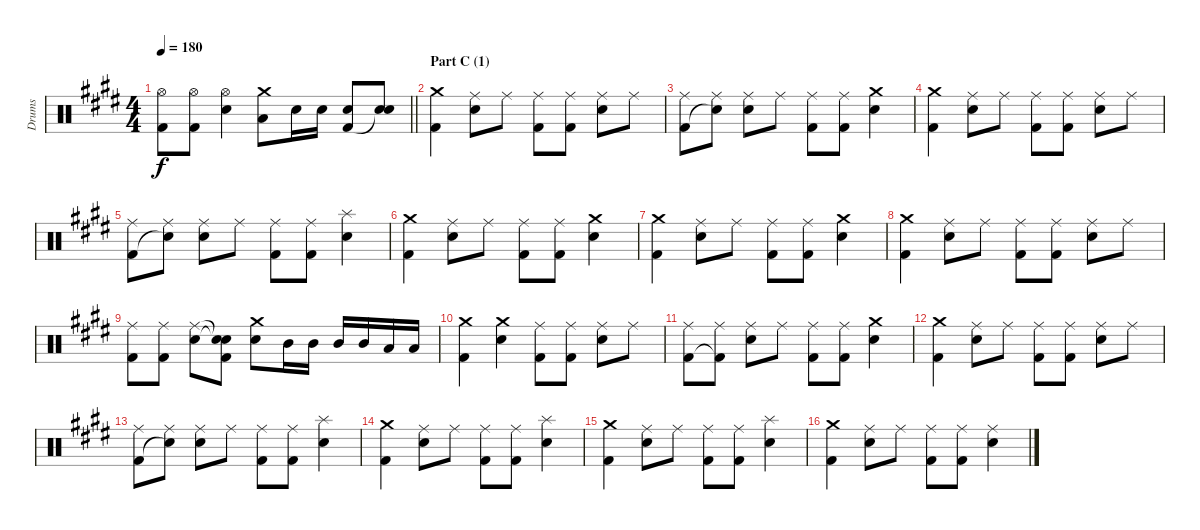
\track ("Drums" "Drums") {instrument percussion}
\staff {score}
\articulation defaults
\ts (4 4)
\tempo 180
\clef neutral
\barLineRight lightlight
\ks e
("Hi-Hat (open)" "Kick (hit) 2").8{dy f} ("Hi-Hat (open)" "Kick (hit) 2").8 ("Hi-Hat (open)" "Electric Snare (hit)").4 ("Crash medium (hit)" "Low Tom (hit)").8 "Electric Snare (hit)".16 "Electric Snare (hit)".16 ("Electric Snare (hit)" "Kick (hit) 2").8 ("Electric Snare (hit)" "Snare (hit)"{t}).8 |
\section ("" "Part C (1)")
("Crash medium (hit)" "Kick (hit) 2").4 ("Ride (middle)" "Electric Snare (hit)").8 "Ride (middle)".8 ("Ride (middle)" "Kick (hit) 2").8 ("Ride (middle)" "Kick (hit) 2").8 ("Ride (middle)" "Electric Snare (hit)").8 "Ride (middle)".8 |
("Ride (middle)" "Kick (hit) 2").8 ("Ride (middle)" "Snare (hit)"{t}).8 ("Ride (middle)" "Electric Snare (hit)").8 "Ride (middle)".8 ("Ride (middle)" "Kick (hit) 2").8 ("Ride (middle)" "Kick (hit) 2").8 ("Crash medium (hit)" "Electric Snare (hit)").4 |
("Crash medium (hit)" "Kick (hit) 2").4 ("Ride (middle)" "Electric Snare (hit)").8 "Ride (middle)".8 ("Ride (middle)" "Kick (hit) 2").8 ("Ride (middle)" "Kick (hit) 2").8 ("Ride (middle)" "Electric Snare (hit)").8 "Ride (middle)".8 |
("Ride (middle)" "Kick (hit) 2").8 ("Ride (middle)" "Snare (hit)"{t}).8 ("Ride (middle)" "Electric Snare (hit)").8 "Ride (middle)".8 ("Ride (middle)" "Kick (hit) 2").8 ("Ride (middle)" "Kick (hit) 2").8 ("Splash (hit)" "Electric Snare (hit)").4 |
("Crash medium (hit)" "Kick (hit) 2").4 ("Ride (middle)" "Electric Snare (hit)").8 "Ride (middle)".8 ("Ride (middle)" "Kick (hit) 2").8 ("Ride (middle)" "Kick (hit) 2").8 ("Crash medium (hit)" "Electric Snare (hit)").4 |
("Crash medium (hit)" "Kick (hit) 2").4 ("Ride (middle)" "Electric Snare (hit)").8 "Ride (middle)".8 ("Ride (middle)" "Kick (hit) 2").8 ("Ride (middle)" "Kick (hit) 2").8 ("Crash medium (hit)" "Electric Snare (hit)").4 |
("Crash medium (hit)" "Kick (hit) 2").4 ("Ride (middle)" "Electric Snare (hit)").8 "Ride (middle)".8 ("Ride (middle)" "Kick (hit) 2").8 ("Ride (middle)" "Kick (hit) 2").8 ("Ride (middle)" "Electric Snare (hit)").8 "Ride (middle)".8 |
("Ride (middle)" "Kick (hit) 2").8 ("Ride (middle)" "Kick (hit) 2").8 ("Ride (middle)" "Electric Snare (hit)").8 ("Snare (hit)"{t} "Snare (hit)"{t} "Kick (hit) 2").8 ("Crash medium (hit)" "Electric Snare (hit)").8 "Mid Tom (hit)".16 "Mid Tom (hit)".16 "Mid Tom (hit)".16 "Mid Tom (hit)".16 "Low Tom (hit)".16 "Low Tom (hit)".16 |
("Crash medium (hit)" "Kick (hit) 2").4 ("Crash medium (hit)" "Electric Snare (hit)").4 ("Ride (middle)" "Kick (hit) 2").8 ("Ride (middle)" "Kick (hit) 2").8 ("Ride (middle)" "Electric Snare (hit)").8 "Ride (middle)".8 |
("Ride (middle)" "Kick (hit) 2").8 ("Ride (middle)" "Kick (hit) 2"{t}).8 ("Ride (middle)" "Electric Snare (hit)").8 "Ride (middle)".8 ("Ride (middle)" "Kick (hit) 2").8 ("Ride (middle)" "Kick (hit) 2").8 ("Crash medium (hit)" "Electric Snare (hit)").4 |
("Crash medium (hit)" "Kick (hit) 2").4 ("Ride (middle)" "Electric Snare (hit)").8 "Ride (middle)".8 ("Ride (middle)" "Kick (hit) 2").8 ("Ride (middle)" "Kick (hit) 2").8 ("Ride (middle)" "Electric Snare (hit)").8 "Ride (middle)".8 |
("Ride (middle)" "Kick (hit) 2").8 ("Ride (middle)" "Snare (hit)"{t}).8 ("Ride (middle)" "Electric Snare (hit)").8 "Ride (middle)".8 ("Ride (middle)" "Kick (hit) 2").8 ("Ride (middle)" "Kick (hit) 2").8 ("Splash (hit)" "Electric Snare (hit)").4 |
("Crash medium (hit)" "Kick (hit) 2").4 ("Ride (middle)" "Electric Snare (hit)").8 "Ride (middle)".8 ("Ride (middle)" "Kick (hit) 2").8 ("Ride (middle)" "Kick (hit) 2").8 ("Splash (hit)" "Electric Snare (hit)").4 |
("Crash medium (hit)" "Kick (hit) 2").4 ("Ride (middle)" "Electric Snare (hit)").8 "Ride (middle)".8 ("Ride (middle)" "Kick (hit) 2").8 ("Ride (middle)" "Kick (hit) 2").8 ("Splash (hit)" "Electric Snare (hit)").4 |
("Crash medium (hit)" "Kick (hit) 2").4 ("Ride (middle)" "Electric Snare (hit)").8 "Ride (middle)".8 ("Ride (middle)" "Kick (hit) 2").8 ("Ride (middle)" "Kick (hit) 2").8 ("Ride (middle)" "Electric Snare (hit)").4
